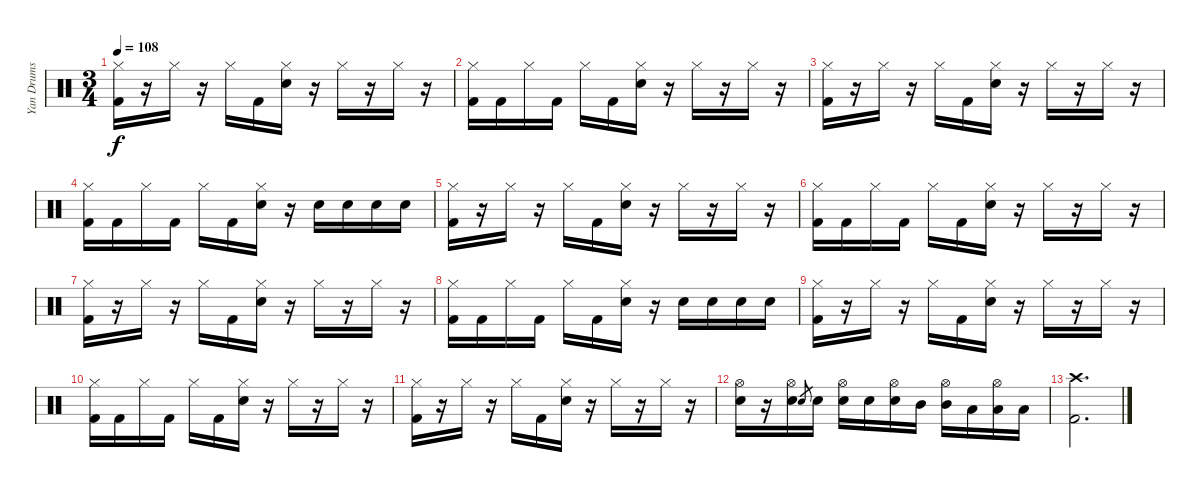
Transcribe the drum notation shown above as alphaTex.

\track ("Yan Drums" "Yan Drums") {instrument percussion}
\staff {score}
\articulation defaults
\ts (3 4)
\tempo 108
\clef neutral
\ks c
("Kick (hit) 2" "Hi-Hat (closed)").16{dy f} r.16 "Hi-Hat (closed)".16 r.16 "Hi-Hat (closed)".16 "Kick (hit) 2".16 ("Electric Snare (hit)" "Hi-Hat (closed)").16 r.16 "Hi-Hat (closed)".16 r.16 "Hi-Hat (closed)".16 r.16 |
("Kick (hit) 2" "Hi-Hat (closed)").16 "Kick (hit) 2".16 "Hi-Hat (closed)".16 "Kick (hit) 2".16 "Hi-Hat (closed)".16 "Kick (hit) 2".16 ("Electric Snare (hit)" "Hi-Hat (closed)").16 r.16 "Hi-Hat (closed)".16 r.16 "Hi-Hat (closed)".16 r.16 |
("Kick (hit) 2" "Hi-Hat (closed)").16 r.16 "Hi-Hat (closed)".16 r.16 "Hi-Hat (closed)".16 "Kick (hit) 2".16 ("Electric Snare (hit)" "Hi-Hat (closed)").16 r.16 "Hi-Hat (closed)".16 r.16 "Hi-Hat (closed)".16 r.16 |
("Kick (hit) 2" "Hi-Hat (closed)").16 "Kick (hit) 2".16 "Hi-Hat (closed)".16 "Kick (hit) 2".16 "Hi-Hat (closed)".16 "Kick (hit) 2".16 ("Electric Snare (hit)" "Hi-Hat (closed)").16 r.16 "Electric Snare (hit)".16 "Electric Snare (hit)".16 "Electric Snare (hit)".16 "Electric Snare (hit)".16 |
("Kick (hit) 2" "Hi-Hat (closed)").16 r.16 "Hi-Hat (closed)".16 r.16 "Hi-Hat (closed)".16 "Kick (hit) 2".16 ("Electric Snare (hit)" "Hi-Hat (closed)").16 r.16 "Hi-Hat (closed)".16 r.16 "Hi-Hat (closed)".16 r.16 |
("Kick (hit) 2" "Hi-Hat (closed)").16 "Kick (hit) 2".16 "Hi-Hat (closed)".16 "Kick (hit) 2".16 "Hi-Hat (closed)".16 "Kick (hit) 2".16 ("Electric Snare (hit)" "Hi-Hat (closed)").16 r.16 "Hi-Hat (closed)".16 r.16 "Hi-Hat (closed)".16 r.16 |
("Kick (hit) 2" "Hi-Hat (closed)").16 r.16 "Hi-Hat (closed)".16 r.16 "Hi-Hat (closed)".16 "Kick (hit) 2".16 ("Electric Snare (hit)" "Hi-Hat (closed)").16 r.16 "Hi-Hat (closed)".16 r.16 "Hi-Hat (closed)".16 r.16 |
("Kick (hit) 2" "Hi-Hat (closed)").16 "Kick (hit) 2".16 "Hi-Hat (closed)".16 "Kick (hit) 2".16 "Hi-Hat (closed)".16 "Kick (hit) 2".16 ("Electric Snare (hit)" "Hi-Hat (closed)").16 r.16 "Electric Snare (hit)".16 "Electric Snare (hit)".16 "Electric Snare (hit)".16 "Electric Snare (hit)".16 |
("Kick (hit) 2" "Hi-Hat (closed)").16 r.16 "Hi-Hat (closed)".16 r.16 "Hi-Hat (closed)".16 "Kick (hit) 2".16 ("Electric Snare (hit)" "Hi-Hat (closed)").16 r.16 "Hi-Hat (closed)".16 r.16 "Hi-Hat (closed)".16 r.16 |
("Kick (hit) 2" "Hi-Hat (closed)").16 "Kick (hit) 2".16 "Hi-Hat (closed)".16 "Kick (hit) 2".16 "Hi-Hat (closed)".16 "Kick (hit) 2".16 ("Electric Snare (hit)" "Hi-Hat (closed)").16 r.16 "Hi-Hat (closed)".16 r.16 "Hi-Hat (closed)".16 r.16 |
("Kick (hit) 2" "Hi-Hat (closed)").16 r.16 "Hi-Hat (closed)".16 r.16 "Hi-Hat (closed)".16 "Kick (hit) 2".16 ("Electric Snare (hit)" "Hi-Hat (closed)").16 r.16 "Hi-Hat (closed)".16 r.16 "Hi-Hat (closed)".16 r.16 |
("Electric Snare (hit)" "Hi-Hat (open)").16 r.16 ("Electric Snare (hit)" "Hi-Hat (open)").16 "Electric Snare (hit)".8{gr} "Electric Snare (hit)".16 ("Electric Snare (hit)" "Hi-Hat (open)").16 "Electric Snare (hit)".16 ("Electric Snare (hit)" "Hi-Hat (open)").16 "Mid Tom (hit)".16 ("Mid Tom (hit)" "Hi-Hat (open)").16 "Low Tom (hit)".16 ("Low Tom (hit)" "Hi-Hat (open)").16 "Low Tom (hit)".16 |
("Crash high (hit)" "Kick (hit) 2").2{d}
